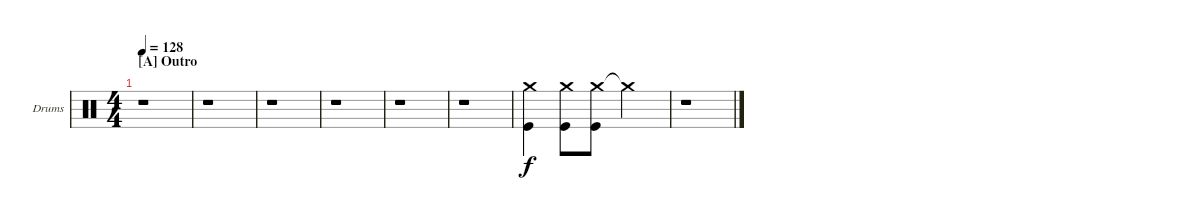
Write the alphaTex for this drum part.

\bracketExtendMode nobrackets
\firstSystemTrackNameOrientation horizontal
\otherSystemsTrackNameOrientation horizontal
\defaultBarNumberDisplay FirstOfSystem
\track ("Drumkit" "Drums") {instrument percussion}
\staff {score}
\articulation defaults
\ts (4 4)
\section ("A" "Outro")
\tempo 128
\clef neutral
\scale
0.318182
\ks c
r.1{dy f} |
\scale
0.181818 r.1 |
\scale
0.375536 r.1 |
\scale
0.375536 r.1 |
\scale
0.124464 r.1 |
\scale
0.124464 r.1 |
\scale
0.25 ("Crash medium (hit)" "Kick (hit)").4 ("Crash medium (hit)" "Kick (hit)").8 ("Crash medium (hit)" "Kick (hit)").8 "Crash medium (hit)"{t}.2 |
\scale
0.25 r.1
